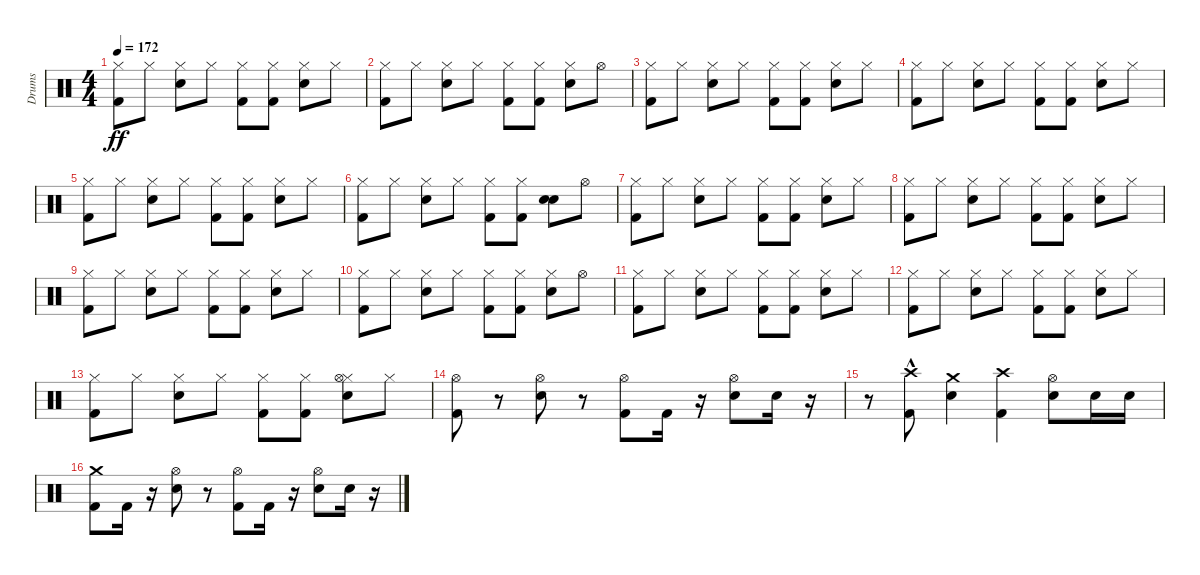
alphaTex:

\track ("Drums" "Drums") {instrument percussion}
\staff {score}
\articulation defaults
\ts (4 4)
\tempo 172
\clef neutral
\ks c
("Kick (hit) 2" "Hi-Hat (closed)").8{dy ff} "Hi-Hat (closed)".8 ("Electric Snare (hit)" "Hi-Hat (closed)").8 "Hi-Hat (closed)".8 ("Kick (hit) 2" "Hi-Hat (closed)").8 ("Kick (hit) 2" "Hi-Hat (closed)").8 ("Electric Snare (hit)" "Hi-Hat (closed)").8 "Hi-Hat (closed)".8 |
("Kick (hit) 2" "Hi-Hat (closed)").8 "Hi-Hat (closed)".8 ("Electric Snare (hit)" "Hi-Hat (closed)").8 "Hi-Hat (closed)".8 ("Kick (hit) 2" "Hi-Hat (closed)").8 ("Kick (hit) 2" "Hi-Hat (closed)").8 ("Electric Snare (hit)" "Hi-Hat (closed)").8 "Hi-Hat (open)".8 |
("Kick (hit) 2" "Hi-Hat (closed)").8 "Hi-Hat (closed)".8 ("Electric Snare (hit)" "Hi-Hat (closed)").8 "Hi-Hat (closed)".8 ("Kick (hit) 2" "Hi-Hat (closed)").8 ("Kick (hit) 2" "Hi-Hat (closed)").8 ("Electric Snare (hit)" "Hi-Hat (closed)").8 "Hi-Hat (closed)".8 |
("Kick (hit) 2" "Hi-Hat (closed)").8 "Hi-Hat (closed)".8 ("Electric Snare (hit)" "Hi-Hat (closed)").8 "Hi-Hat (closed)".8 ("Kick (hit) 2" "Hi-Hat (closed)").8 ("Kick (hit) 2" "Hi-Hat (closed)").8 ("Electric Snare (hit)" "Hi-Hat (closed)").8 "Hi-Hat (closed)".8 |
("Kick (hit) 2" "Hi-Hat (closed)").8 "Hi-Hat (closed)".8 ("Electric Snare (hit)" "Hi-Hat (closed)").8 "Hi-Hat (closed)".8 ("Kick (hit) 2" "Hi-Hat (closed)").8 ("Kick (hit) 2" "Hi-Hat (closed)").8 ("Electric Snare (hit)" "Hi-Hat (closed)").8 "Hi-Hat (closed)".8 |
("Kick (hit) 2" "Hi-Hat (closed)").8 "Hi-Hat (closed)".8 ("Electric Snare (hit)" "Hi-Hat (closed)").8 "Hi-Hat (closed)".8 ("Kick (hit) 2" "Hi-Hat (closed)").8 ("Kick (hit) 2" "Hi-Hat (closed)").8 ("Electric Snare (hit)" "Electric Snare (hit)").8 "Hi-Hat (open)".8 |
("Kick (hit) 2" "Hi-Hat (closed)").8 "Hi-Hat (closed)".8 ("Electric Snare (hit)" "Hi-Hat (closed)").8 "Hi-Hat (closed)".8 ("Kick (hit) 2" "Hi-Hat (closed)").8 ("Kick (hit) 2" "Hi-Hat (closed)").8 ("Electric Snare (hit)" "Hi-Hat (closed)").8 "Hi-Hat (closed)".8 |
("Kick (hit) 2" "Hi-Hat (closed)").8 "Hi-Hat (closed)".8 ("Electric Snare (hit)" "Hi-Hat (closed)").8 "Hi-Hat (closed)".8 ("Kick (hit) 2" "Hi-Hat (closed)").8 ("Kick (hit) 2" "Hi-Hat (closed)").8 ("Electric Snare (hit)" "Hi-Hat (closed)").8 "Hi-Hat (closed)".8 |
("Kick (hit) 2" "Hi-Hat (closed)").8 "Hi-Hat (closed)".8 ("Electric Snare (hit)" "Hi-Hat (closed)").8 "Hi-Hat (closed)".8 ("Kick (hit) 2" "Hi-Hat (closed)").8 ("Kick (hit) 2" "Hi-Hat (closed)").8 ("Electric Snare (hit)" "Hi-Hat (closed)").8 "Hi-Hat (closed)".8 |
("Kick (hit) 2" "Hi-Hat (closed)").8 "Hi-Hat (closed)".8 ("Electric Snare (hit)" "Hi-Hat (closed)").8 "Hi-Hat (closed)".8 ("Kick (hit) 2" "Hi-Hat (closed)").8 ("Kick (hit) 2" "Hi-Hat (closed)").8 ("Electric Snare (hit)" "Hi-Hat (closed)").8 "Hi-Hat (open)".8 |
("Kick (hit) 2" "Hi-Hat (closed)").8 "Hi-Hat (closed)".8 ("Electric Snare (hit)" "Hi-Hat (closed)").8 "Hi-Hat (closed)".8 ("Kick (hit) 2" "Hi-Hat (closed)").8 ("Kick (hit) 2" "Hi-Hat (closed)").8 ("Electric Snare (hit)" "Hi-Hat (closed)").8 "Hi-Hat (closed)".8 |
("Kick (hit) 2" "Hi-Hat (closed)").8 "Hi-Hat (closed)".8 ("Electric Snare (hit)" "Hi-Hat (closed)").8 "Hi-Hat (closed)".8 ("Kick (hit) 2" "Hi-Hat (closed)").8 ("Kick (hit) 2" "Hi-Hat (closed)").8 ("Electric Snare (hit)" "Hi-Hat (closed)").8 "Hi-Hat (closed)".8 |
("Kick (hit) 2" "Hi-Hat (closed)").8 "Hi-Hat (closed)".8 ("Electric Snare (hit)" "Hi-Hat (closed)").8 "Hi-Hat (closed)".8 ("Kick (hit) 2" "Hi-Hat (closed)").8 ("Kick (hit) 2" "Hi-Hat (closed)").8 ("Electric Snare (hit)" "Hi-Hat (closed)" "Hi-Hat (open)").8 "Hi-Hat (closed)".8 |
("Kick (hit) 2" "Hi-Hat (open)").8 r.8 ("Electric Snare (hit)" "Hi-Hat (open)").8 r.8 ("Kick (hit) 2" "Hi-Hat (open)").8 "Kick (hit) 2".16 r.16 ("Electric Snare (hit)" "Hi-Hat (open)").8 "Electric Snare (hit)".16 r.16 |
r.8 ("Kick (hit) 2" "Crash high (hit)"{hac}).8 ("Electric Snare (hit)" "Crash medium (hit)").4 ("Kick (hit) 2" "Crash high (hit)").4 ("Electric Snare (hit)" "Hi-Hat (open)").8 "Electric Snare (hit)".16 "Electric Snare (hit)".16 |
("Kick (hit) 2" "Crash medium (hit)").8 "Kick (hit) 2".16 r.16 ("Electric Snare (hit)" "Hi-Hat (open)").8 r.8 ("Kick (hit) 2" "Hi-Hat (open)").8 "Kick (hit) 2".16 r.16 ("Electric Snare (hit)" "Hi-Hat (open)").8 "Electric Snare (hit)".16 r.16
